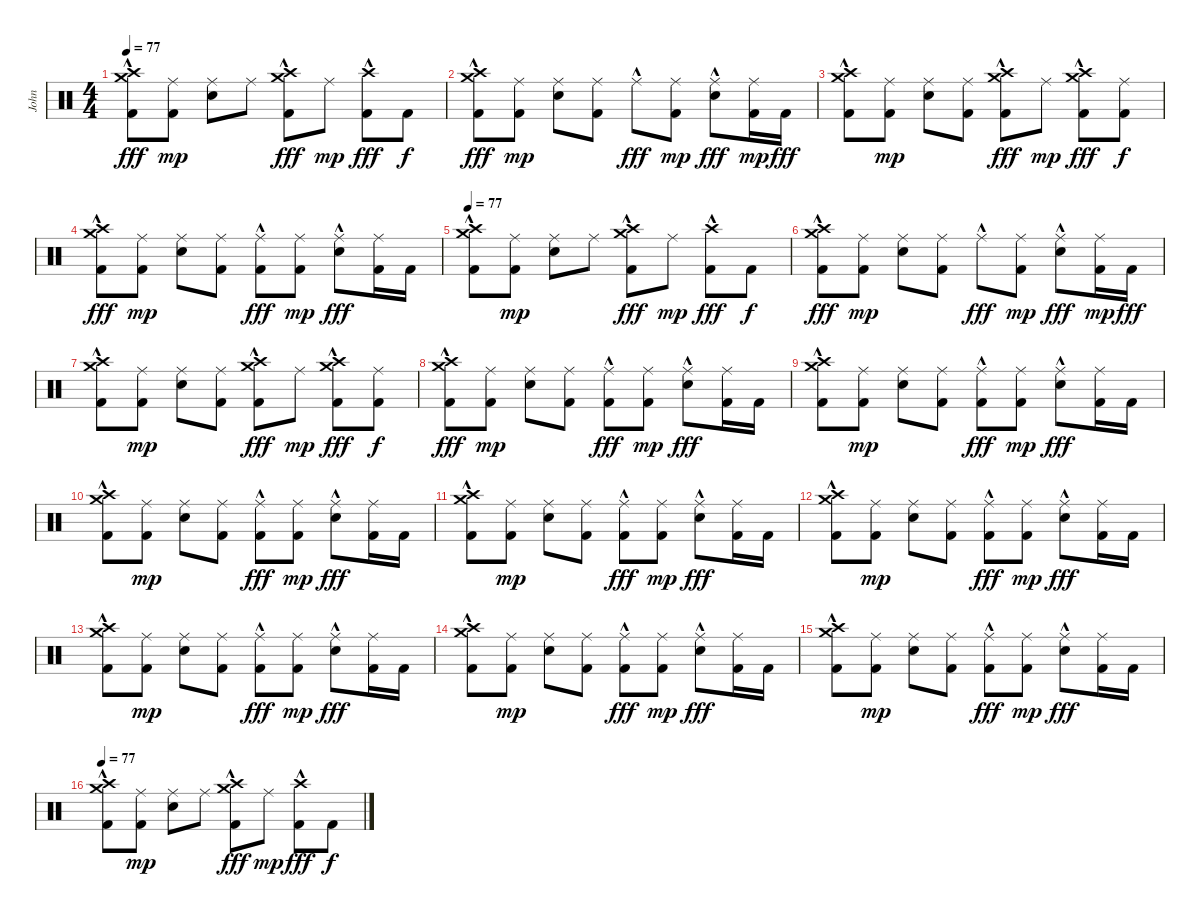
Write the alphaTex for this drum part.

\track ("John" "John") {instrument percussion}
\staff {score}
\articulation defaults
\ts (4 4)
\tempo 77
\clef neutral
\ks c
("Crash high (hit)"{hac} "Crash medium (hit)" "Kick (hit) 2"{hac}).8{dy fff} ("Ride (middle)" "Kick (hit) 2").8{dy mp} ("Ride (middle)" "Electric Snare (hit)").8 "Ride (middle)".8 ("Crash high (hit)"{hac} "Crash medium (hit)"{hac} "Kick (hit) 2").8{dy fff} "Ride (middle)".8{dy mp} ("Crash high (hit)"{hac} "Kick (hit) 2"{hac}).8{dy fff} "Kick (hit) 2".8{dy f} |
("Crash high (hit)"{hac} "Crash medium (hit)" "Kick (hit) 2"{hac}).8{dy fff} ("Ride (middle)" "Kick (hit) 2").8{dy mp} ("Ride (middle)" "Electric Snare (hit)").8 ("Ride (middle)" "Kick (hit) 2").8 "Ride (middle)"{hac}.8{dy fff} ("Ride (middle)" "Kick (hit) 2").8{dy mp} ("Ride (middle)"{hac} "Electric Snare (hit)"{hac}).8{dy fff} ("Ride (middle)" "Kick (hit) 2").16{dy mp} "Kick (hit) 2".16{dy fff} |
("Crash high (hit)"{hac} "Crash medium (hit)" "Kick (hit) 2"{hac}).8 ("Ride (middle)" "Kick (hit) 2").8{dy mp} ("Ride (middle)" "Electric Snare (hit)").8 ("Ride (middle)" "Kick (hit) 2").8 ("Crash high (hit)"{hac} "Crash medium (hit)" "Kick (hit) 2"{hac}).8{dy fff} "Ride (middle)".8{dy mp} ("Crash high (hit)"{hac} "Crash medium (hit)" "Kick (hit) 2"{hac}).8{dy fff} ("Ride (middle)" "Kick (hit) 2").8{dy f} |
("Crash high (hit)"{hac} "Crash medium (hit)" "Kick (hit) 2"{hac}).8{dy fff} ("Ride (middle)" "Kick (hit) 2").8{dy mp} ("Ride (middle)" "Electric Snare (hit)").8 ("Ride (middle)" "Kick (hit) 2").8 ("Ride (middle)"{hac} "Kick (hit) 2").8{dy fff} ("Ride (middle)" "Kick (hit) 2").8{dy mp} ("Ride (middle)"{hac} "Electric Snare (hit)"{hac}).8{dy fff} ("Ride (middle)" "Kick (hit) 2").16 "Kick (hit) 2".16 |
\tempo 77
("Crash high (hit)"{hac} "Crash medium (hit)" "Kick (hit) 2"{hac}).8 ("Ride (middle)" "Kick (hit) 2").8{dy mp} ("Ride (middle)" "Electric Snare (hit)").8 "Ride (middle)".8 ("Crash high (hit)"{hac} "Crash medium (hit)"{hac} "Kick (hit) 2").8{dy fff} "Ride (middle)".8{dy mp} ("Crash high (hit)"{hac} "Kick (hit) 2"{hac}).8{dy fff} "Kick (hit) 2".8{dy f} |
("Crash high (hit)"{hac} "Crash medium (hit)" "Kick (hit) 2"{hac}).8{dy fff} ("Ride (middle)" "Kick (hit) 2").8{dy mp} ("Ride (middle)" "Electric Snare (hit)").8 ("Ride (middle)" "Kick (hit) 2").8 "Ride (middle)"{hac}.8{dy fff} ("Ride (middle)" "Kick (hit) 2").8{dy mp} ("Ride (middle)"{hac} "Electric Snare (hit)"{hac}).8{dy fff} ("Ride (middle)" "Kick (hit) 2").16{dy mp} "Kick (hit) 2".16{dy fff} |
("Crash high (hit)"{hac} "Crash medium (hit)" "Kick (hit) 2"{hac}).8 ("Ride (middle)" "Kick (hit) 2").8{dy mp} ("Ride (middle)" "Electric Snare (hit)").8 ("Ride (middle)" "Kick (hit) 2").8 ("Crash high (hit)"{hac} "Crash medium (hit)" "Kick (hit) 2"{hac}).8{dy fff} "Ride (middle)".8{dy mp} ("Crash high (hit)"{hac} "Crash medium (hit)" "Kick (hit) 2"{hac}).8{dy fff} ("Ride (middle)" "Kick (hit) 2").8{dy f} |
("Crash high (hit)"{hac} "Crash medium (hit)" "Kick (hit) 2"{hac}).8{dy fff} ("Ride (middle)" "Kick (hit) 2").8{dy mp} ("Ride (middle)" "Electric Snare (hit)").8 ("Ride (middle)" "Kick (hit) 2").8 ("Ride (middle)"{hac} "Kick (hit) 2").8{dy fff} ("Ride (middle)" "Kick (hit) 2").8{dy mp} ("Ride (middle)"{hac} "Electric Snare (hit)"{hac}).8{dy fff} ("Ride (middle)" "Kick (hit) 2").16 "Kick (hit) 2".16 |
("Crash high (hit)"{hac} "Crash medium (hit)" "Kick (hit) 2"{hac}).8 ("Ride (middle)" "Kick (hit) 2").8{dy mp} ("Ride (middle)" "Electric Snare (hit)").8 ("Ride (middle)" "Kick (hit) 2").8 ("Ride (middle)"{hac} "Kick (hit) 2").8{dy fff} ("Ride (middle)" "Kick (hit) 2").8{dy mp} ("Ride (middle)"{hac} "Electric Snare (hit)"{hac}).8{dy fff} ("Ride (middle)" "Kick (hit) 2").16 "Kick (hit) 2".16 |
("Crash high (hit)"{hac} "Crash medium (hit)" "Kick (hit) 2"{hac}).8 ("Ride (middle)" "Kick (hit) 2").8{dy mp} ("Ride (middle)" "Electric Snare (hit)").8 ("Ride (middle)" "Kick (hit) 2").8 ("Ride (middle)"{hac} "Kick (hit) 2").8{dy fff} ("Ride (middle)" "Kick (hit) 2").8{dy mp} ("Ride (middle)"{hac} "Electric Snare (hit)"{hac}).8{dy fff} ("Ride (middle)" "Kick (hit) 2").16 "Kick (hit) 2".16 |
("Crash high (hit)"{hac} "Crash medium (hit)" "Kick (hit) 2"{hac}).8 ("Ride (middle)" "Kick (hit) 2").8{dy mp} ("Ride (middle)" "Electric Snare (hit)").8 ("Ride (middle)" "Kick (hit) 2").8 ("Ride (middle)"{hac} "Kick (hit) 2").8{dy fff} ("Ride (middle)" "Kick (hit) 2").8{dy mp} ("Ride (middle)"{hac} "Electric Snare (hit)"{hac}).8{dy fff} ("Ride (middle)" "Kick (hit) 2").16 "Kick (hit) 2".16 |
("Crash high (hit)"{hac} "Crash medium (hit)" "Kick (hit) 2"{hac}).8 ("Ride (middle)" "Kick (hit) 2").8{dy mp} ("Ride (middle)" "Electric Snare (hit)").8 ("Ride (middle)" "Kick (hit) 2").8 ("Ride (middle)"{hac} "Kick (hit) 2").8{dy fff} ("Ride (middle)" "Kick (hit) 2").8{dy mp} ("Ride (middle)"{hac} "Electric Snare (hit)"{hac}).8{dy fff} ("Ride (middle)" "Kick (hit) 2").16 "Kick (hit) 2".16 |
("Crash high (hit)"{hac} "Crash medium (hit)" "Kick (hit) 2"{hac}).8 ("Ride (middle)" "Kick (hit) 2").8{dy mp} ("Ride (middle)" "Electric Snare (hit)").8 ("Ride (middle)" "Kick (hit) 2").8 ("Ride (middle)"{hac} "Kick (hit) 2").8{dy fff} ("Ride (middle)" "Kick (hit) 2").8{dy mp} ("Ride (middle)"{hac} "Electric Snare (hit)"{hac}).8{dy fff} ("Ride (middle)" "Kick (hit) 2").16 "Kick (hit) 2".16 |
("Crash high (hit)"{hac} "Crash medium (hit)" "Kick (hit) 2"{hac}).8 ("Ride (middle)" "Kick (hit) 2").8{dy mp} ("Ride (middle)" "Electric Snare (hit)").8 ("Ride (middle)" "Kick (hit) 2").8 ("Ride (middle)"{hac} "Kick (hit) 2").8{dy fff} ("Ride (middle)" "Kick (hit) 2").8{dy mp} ("Ride (middle)"{hac} "Electric Snare (hit)"{hac}).8{dy fff} ("Ride (middle)" "Kick (hit) 2").16 "Kick (hit) 2".16 |
("Crash high (hit)"{hac} "Crash medium (hit)" "Kick (hit) 2"{hac}).8 ("Ride (middle)" "Kick (hit) 2").8{dy mp} ("Ride (middle)" "Electric Snare (hit)").8 ("Ride (middle)" "Kick (hit) 2").8 ("Ride (middle)"{hac} "Kick (hit) 2").8{dy fff} ("Ride (middle)" "Kick (hit) 2").8{dy mp} ("Ride (middle)"{hac} "Electric Snare (hit)"{hac}).8{dy fff} ("Ride (middle)" "Kick (hit) 2").16 "Kick (hit) 2".16 |
\tempo 77
("Crash high (hit)"{hac} "Crash medium (hit)" "Kick (hit) 2"{hac}).8 ("Ride (middle)" "Kick (hit) 2").8{dy mp} ("Ride (middle)" "Electric Snare (hit)").8 "Ride (middle)".8 ("Crash high (hit)"{hac} "Crash medium (hit)"{hac} "Kick (hit) 2").8{dy fff} "Ride (middle)".8{dy mp} ("Crash high (hit)"{hac} "Kick (hit) 2"{hac}).8{dy fff} "Kick (hit) 2".8{dy f}
